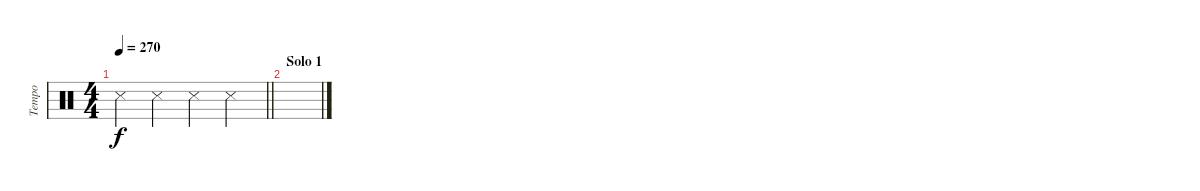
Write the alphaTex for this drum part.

\track ("Tempo" "Tempo") {instrument percussion}
\staff {score}
\articulation defaults
\ts (4 4)
\tempo 270
\clef neutral
\barLineRight lightlight
\ks c "Snare (side stick) 3".4{dy f} "Snare (side stick) 3".4 "Snare (side stick) 3".4 "Snare (side stick) 3".4
|
\section ("" "Solo 1")
